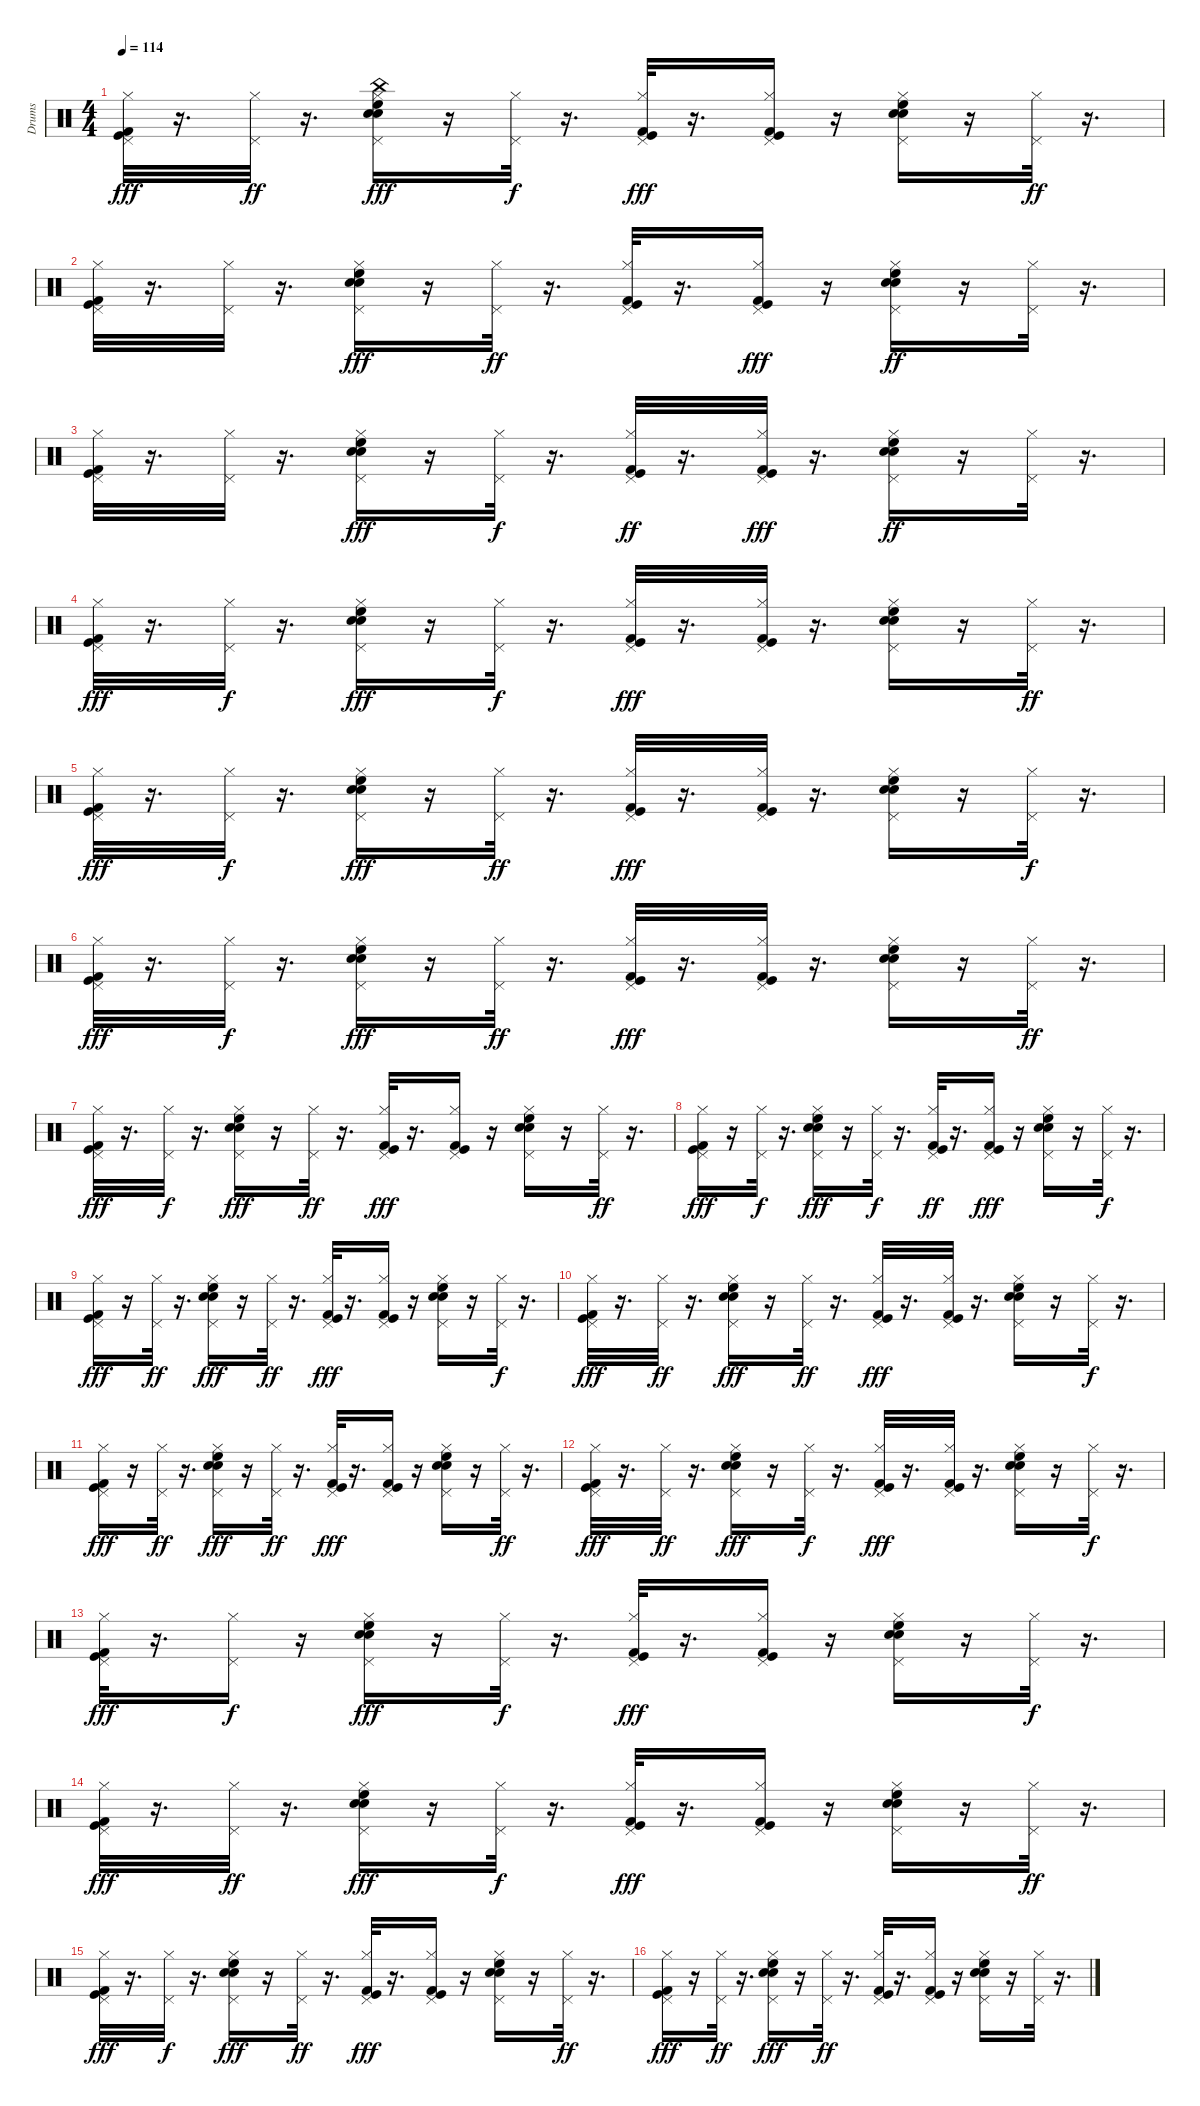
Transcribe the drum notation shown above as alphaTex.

\track ("Drums" "Drums") {instrument percussion}
\staff {score}
\articulation defaults
\ts (4 4)
\tempo 114
\clef neutral
\ks c
("Pedal Hi-Hat (hit)" "Kick (hit)" "Hi-Hat (closed)" "Kick (hit) 2").32{dy fff} r.16{d} ("Pedal Hi-Hat (hit)" "Hi-Hat (closed)").32{dy ff} r.16{d} ("Pedal Hi-Hat (hit)" "Hi-Hat (closed)" "China (hit)" "High Floor Tom (hit)" "Snare (hit) 2" "Electric Snare (hit)").16{dy fff} r.16 ("Pedal Hi-Hat (hit)" "Hi-Hat (closed)").32{dy f} r.16{d} ("Kick (hit) 2" "Pedal Hi-Hat (hit)" "Hi-Hat (closed)" "Kick (hit)").32{dy fff} r.16{d} ("Pedal Hi-Hat (hit)" "Hi-Hat (closed)" "Kick (hit) 2" "Kick (hit)").16 r.16 ("Snare (hit) 2" "High Floor Tom (hit)" "Pedal Hi-Hat (hit)" "Hi-Hat (closed)" "Electric Snare (hit)").16 r.16 ("Pedal Hi-Hat (hit)" "Hi-Hat (closed)").32{dy ff} r.16{d} |
("Kick (hit) 2" "Kick (hit)" "Pedal Hi-Hat (hit)" "Hi-Hat (closed)").32 r.16{d} ("Pedal Hi-Hat (hit)" "Hi-Hat (closed)").32 r.16{d} ("Electric Snare (hit)" "Snare (hit) 2" "Pedal Hi-Hat (hit)" "Hi-Hat (closed)" "High Floor Tom (hit)").16{dy fff} r.16 ("Pedal Hi-Hat (hit)" "Hi-Hat (closed)").32{dy ff} r.16{d} ("Kick (hit) 2" "Kick (hit)" "Pedal Hi-Hat (hit)" "Hi-Hat (closed)").32 r.16{d} ("Pedal Hi-Hat (hit)" "Hi-Hat (closed)" "Kick (hit)" "Kick (hit) 2").16{dy fff} r.16 ("Electric Snare (hit)" "Snare (hit) 2" "High Floor Tom (hit)" "Pedal Hi-Hat (hit)" "Hi-Hat (closed)").16{dy ff} r.16 ("Pedal Hi-Hat (hit)" "Hi-Hat (closed)").32 r.16{d} |
("Kick (hit) 2" "Kick (hit)" "Pedal Hi-Hat (hit)" "Hi-Hat (closed)").32 r.16{d} ("Pedal Hi-Hat (hit)" "Hi-Hat (closed)").32 r.16{d} ("Electric Snare (hit)" "Pedal Hi-Hat (hit)" "Hi-Hat (closed)" "Snare (hit) 2" "High Floor Tom (hit)").16{dy fff} r.16 ("Pedal Hi-Hat (hit)" "Hi-Hat (closed)").32{dy f} r.16{d} ("Kick (hit) 2" "Kick (hit)" "Pedal Hi-Hat (hit)" "Hi-Hat (closed)").32{dy ff} r.16{d} ("Kick (hit)" "Pedal Hi-Hat (hit)" "Hi-Hat (closed)" "Kick (hit) 2").32{dy fff} r.16{d} ("High Floor Tom (hit)" "Electric Snare (hit)" "Pedal Hi-Hat (hit)" "Snare (hit) 2" "Hi-Hat (closed)").16{dy ff} r.16 ("Pedal Hi-Hat (hit)" "Hi-Hat (closed)").32 r.16{d} |
("Kick (hit)" "Pedal Hi-Hat (hit)" "Hi-Hat (closed)" "Kick (hit) 2").32{dy fff} r.16{d} ("Pedal Hi-Hat (hit)" "Hi-Hat (closed)").32{dy f} r.16{d} ("Snare (hit) 2" "Electric Snare (hit)" "Pedal Hi-Hat (hit)" "Hi-Hat (closed)" "High Floor Tom (hit)").16{dy fff} r.16 ("Pedal Hi-Hat (hit)" "Hi-Hat (closed)").32{dy f} r.16{d} ("Pedal Hi-Hat (hit)" "Hi-Hat (closed)" "Kick (hit)" "Kick (hit) 2").32{dy fff} r.16{d} ("Pedal Hi-Hat (hit)" "Hi-Hat (closed)" "Kick (hit)" "Kick (hit) 2").32 r.16{d} ("Pedal Hi-Hat (hit)" "Hi-Hat (closed)" "Snare (hit) 2" "High Floor Tom (hit)" "Electric Snare (hit)").16 r.16 ("Pedal Hi-Hat (hit)" "Hi-Hat (closed)").32{dy ff} r.16{d} |
("Kick (hit)" "Pedal Hi-Hat (hit)" "Hi-Hat (closed)" "Kick (hit) 2").32{dy fff} r.16{d} ("Pedal Hi-Hat (hit)" "Hi-Hat (closed)").32{dy f} r.16{d} ("High Floor Tom (hit)" "Snare (hit) 2" "Pedal Hi-Hat (hit)" "Hi-Hat (closed)" "Electric Snare (hit)").16{dy fff} r.16 ("Pedal Hi-Hat (hit)" "Hi-Hat (closed)").32{dy ff} r.16{d} ("Pedal Hi-Hat (hit)" "Hi-Hat (closed)" "Kick (hit) 2" "Kick (hit)").32{dy fff} r.16{d} ("Pedal Hi-Hat (hit)" "Hi-Hat (closed)" "Kick (hit)" "Kick (hit) 2").32 r.16{d} ("Pedal Hi-Hat (hit)" "Snare (hit) 2" "Hi-Hat (closed)" "High Floor Tom (hit)" "Electric Snare (hit)").16 r.16 ("Pedal Hi-Hat (hit)" "Hi-Hat (closed)").32{dy f} r.16{d} |
("Pedal Hi-Hat (hit)" "Hi-Hat (closed)" "Kick (hit)" "Kick (hit) 2").32{dy fff} r.16{d} ("Pedal Hi-Hat (hit)" "Hi-Hat (closed)").32{dy f} r.16{d} ("Snare (hit) 2" "High Floor Tom (hit)" "Pedal Hi-Hat (hit)" "Hi-Hat (closed)" "Electric Snare (hit)").16{dy fff} r.16 ("Pedal Hi-Hat (hit)" "Hi-Hat (closed)").32{dy ff} r.16{d} ("Kick (hit) 2" "Pedal Hi-Hat (hit)" "Hi-Hat (closed)" "Kick (hit)").32{dy fff} r.16{d} ("Pedal Hi-Hat (hit)" "Kick (hit) 2" "Hi-Hat (closed)" "Kick (hit)").32 r.16{d} ("Electric Snare (hit)" "Pedal Hi-Hat (hit)" "High Floor Tom (hit)" "Hi-Hat (closed)" "Snare (hit) 2").16 r.16 ("Pedal Hi-Hat (hit)" "Hi-Hat (closed)").32{dy ff} r.16{d} |
("Pedal Hi-Hat (hit)" "Hi-Hat (closed)" "Kick (hit) 2" "Kick (hit)").32{dy fff} r.16{d} ("Pedal Hi-Hat (hit)" "Hi-Hat (closed)").32{dy f} r.16{d} ("Electric Snare (hit)" "Pedal Hi-Hat (hit)" "Hi-Hat (closed)" "High Floor Tom (hit)" "Snare (hit) 2").16{dy fff} r.16 ("Pedal Hi-Hat (hit)" "Hi-Hat (closed)").32{dy ff} r.16{d} ("Kick (hit) 2" "Pedal Hi-Hat (hit)" "Hi-Hat (closed)" "Kick (hit)").32{dy fff} r.16{d} ("Pedal Hi-Hat (hit)" "Kick (hit) 2" "Hi-Hat (closed)" "Kick (hit)").16 r.16 ("High Floor Tom (hit)" "Electric Snare (hit)" "Pedal Hi-Hat (hit)" "Hi-Hat (closed)" "Snare (hit) 2").16 r.16 ("Pedal Hi-Hat (hit)" "Hi-Hat (closed)").32{dy ff} r.16{d} |
("Kick (hit) 2" "Pedal Hi-Hat (hit)" "Hi-Hat (closed)" "Kick (hit)").16{dy fff} r.16 ("Pedal Hi-Hat (hit)" "Hi-Hat (closed)").32{dy f} r.16{d} ("Electric Snare (hit)" "Pedal Hi-Hat (hit)" "Hi-Hat (closed)" "High Floor Tom (hit)" "Snare (hit) 2").16{dy fff} r.16 ("Pedal Hi-Hat (hit)" "Hi-Hat (closed)").32{dy f} r.16{d} ("Kick (hit) 2" "Pedal Hi-Hat (hit)" "Kick (hit)" "Hi-Hat (closed)").32{dy ff} r.16{d} ("Pedal Hi-Hat (hit)" "Hi-Hat (closed)" "Kick (hit)" "Kick (hit) 2").16{dy fff} r.16 ("Pedal Hi-Hat (hit)" "Snare (hit) 2" "High Floor Tom (hit)" "Hi-Hat (closed)" "Electric Snare (hit)").16 r.16 ("Pedal Hi-Hat (hit)" "Hi-Hat (closed)").32{dy f} r.16{d} |
("Kick (hit) 2" "Pedal Hi-Hat (hit)" "Hi-Hat (closed)" "Kick (hit)").16{dy fff} r.16 ("Pedal Hi-Hat (hit)" "Hi-Hat (closed)").32{dy ff} r.16{d} ("Electric Snare (hit)" "Snare (hit) 2" "Pedal Hi-Hat (hit)" "Hi-Hat (closed)" "High Floor Tom (hit)").16{dy fff} r.16 ("Pedal Hi-Hat (hit)" "Hi-Hat (closed)").32{dy ff} r.16{d} ("Kick (hit) 2" "Pedal Hi-Hat (hit)" "Hi-Hat (closed)" "Kick (hit)").32{dy fff} r.16{d} ("Pedal Hi-Hat (hit)" "Kick (hit) 2" "Hi-Hat (closed)" "Kick (hit)").16 r.16 ("Snare (hit) 2" "High Floor Tom (hit)" "Pedal Hi-Hat (hit)" "Hi-Hat (closed)" "Electric Snare (hit)").16 r.16 ("Hi-Hat (closed)" "Pedal Hi-Hat (hit)").32{dy f} r.16{d} |
("Kick (hit)" "Pedal Hi-Hat (hit)" "Hi-Hat (closed)" "Kick (hit) 2").32{dy fff} r.16{d} ("Pedal Hi-Hat (hit)" "Hi-Hat (closed)").32{dy ff} r.16{d} ("Pedal Hi-Hat (hit)" "Snare (hit) 2" "Hi-Hat (closed)" "High Floor Tom (hit)" "Electric Snare (hit)").16{dy fff} r.16 ("Pedal Hi-Hat (hit)" "Hi-Hat (closed)").32{dy ff} r.16{d} ("Hi-Hat (closed)" "Pedal Hi-Hat (hit)" "Kick (hit)" "Kick (hit) 2").32{dy fff} r.16{d} ("Pedal Hi-Hat (hit)" "Kick (hit)" "Hi-Hat (closed)" "Kick (hit) 2").32 r.16{d} ("Snare (hit) 2" "High Floor Tom (hit)" "Pedal Hi-Hat (hit)" "Hi-Hat (closed)" "Electric Snare (hit)").16 r.16 ("Pedal Hi-Hat (hit)" "Hi-Hat (closed)").32{dy f} r.16{d} |
("Kick (hit)" "Pedal Hi-Hat (hit)" "Hi-Hat (closed)" "Kick (hit) 2").16{dy fff} r.16 ("Pedal Hi-Hat (hit)" "Hi-Hat (closed)").32{dy ff} r.16{d} ("Pedal Hi-Hat (hit)" "Hi-Hat (closed)" "Electric Snare (hit)" "Snare (hit) 2" "High Floor Tom (hit)").16{dy fff} r.16 ("Pedal Hi-Hat (hit)" "Hi-Hat (closed)").32{dy ff} r.16{d} ("Kick (hit)" "Pedal Hi-Hat (hit)" "Hi-Hat (closed)" "Kick (hit) 2").32{dy fff} r.16{d} ("Hi-Hat (closed)" "Pedal Hi-Hat (hit)" "Kick (hit)" "Kick (hit) 2").16 r.16 ("High Floor Tom (hit)" "Pedal Hi-Hat (hit)" "Hi-Hat (closed)" "Electric Snare (hit)" "Snare (hit) 2").16 r.16 ("Pedal Hi-Hat (hit)" "Hi-Hat (closed)").32{dy ff} r.16{d} |
("Kick (hit)" "Pedal Hi-Hat (hit)" "Hi-Hat (closed)" "Kick (hit) 2").32{dy fff} r.16{d} ("Pedal Hi-Hat (hit)" "Hi-Hat (closed)").32{dy ff} r.16{d} ("Snare (hit) 2" "Pedal Hi-Hat (hit)" "Hi-Hat (closed)" "Electric Snare (hit)" "High Floor Tom (hit)").16{dy fff} r.16 ("Pedal Hi-Hat (hit)" "Hi-Hat (closed)").32{dy f} r.16{d} ("Pedal Hi-Hat (hit)" "Hi-Hat (closed)" "Kick (hit)" "Kick (hit) 2").32{dy fff} r.16{d} ("Hi-Hat (closed)" "Pedal Hi-Hat (hit)" "Kick (hit)" "Kick (hit) 2").32 r.16{d} ("Snare (hit) 2" "Pedal Hi-Hat (hit)" "Electric Snare (hit)" "Hi-Hat (closed)" "High Floor Tom (hit)").16 r.16 ("Hi-Hat (closed)" "Pedal Hi-Hat (hit)").32{dy f} r.16{d} |
("Kick (hit)" "Kick (hit) 2" "Pedal Hi-Hat (hit)" "Hi-Hat (closed)").32{dy fff} r.16{d} ("Pedal Hi-Hat (hit)" "Hi-Hat (closed)").16{dy f} r.16 ("Electric Snare (hit)" "Pedal Hi-Hat (hit)" "Snare (hit) 2" "Hi-Hat (closed)" "High Floor Tom (hit)").16{dy fff} r.16 ("Pedal Hi-Hat (hit)" "Hi-Hat (closed)").32{dy f} r.16{d} ("Kick (hit)" "Hi-Hat (closed)" "Pedal Hi-Hat (hit)" "Kick (hit) 2").32{dy fff} r.16{d} ("Kick (hit) 2" "Kick (hit)" "Hi-Hat (closed)" "Pedal Hi-Hat (hit)").16 r.16 ("Electric Snare (hit)" "Pedal Hi-Hat (hit)" "Hi-Hat (closed)" "High Floor Tom (hit)" "Snare (hit) 2").16 r.16 ("Pedal Hi-Hat (hit)" "Hi-Hat (closed)").32{dy f} r.16{d} |
("Kick (hit)" "Kick (hit) 2" "Pedal Hi-Hat (hit)" "Hi-Hat (closed)").32{dy fff} r.16{d} ("Pedal Hi-Hat (hit)" "Hi-Hat (closed)").32{dy ff} r.16{d} ("Snare (hit) 2" "Electric Snare (hit)" "Pedal Hi-Hat (hit)" "High Floor Tom (hit)" "Hi-Hat (closed)").16{dy fff} r.16 ("Hi-Hat (closed)" "Pedal Hi-Hat (hit)").32{dy f} r.16{d} ("Pedal Hi-Hat (hit)" "Kick (hit) 2" "Hi-Hat (closed)" "Kick (hit)").32{dy fff} r.16{d} ("Pedal Hi-Hat (hit)" "Kick (hit) 2" "Hi-Hat (closed)" "Kick (hit)").16 r.16 ("High Floor Tom (hit)" "Electric Snare (hit)" "Hi-Hat (closed)" "Snare (hit) 2" "Pedal Hi-Hat (hit)").16 r.16 ("Pedal Hi-Hat (hit)" "Hi-Hat (closed)").32{dy ff} r.16{d} |
("Kick (hit)" "Pedal Hi-Hat (hit)" "Kick (hit) 2" "Hi-Hat (closed)").32{dy fff} r.16{d} ("Pedal Hi-Hat (hit)" "Hi-Hat (closed)").32{dy f} r.16{d} ("Pedal Hi-Hat (hit)" "Hi-Hat (closed)" "Electric Snare (hit)" "High Floor Tom (hit)" "Snare (hit) 2").16{dy fff} r.16 ("Pedal Hi-Hat (hit)" "Hi-Hat (closed)").32{dy ff} r.16{d} ("Pedal Hi-Hat (hit)" "Hi-Hat (closed)" "Kick (hit)" "Kick (hit) 2").32{dy fff} r.16{d} ("Pedal Hi-Hat (hit)" "Hi-Hat (closed)" "Kick (hit) 2" "Kick (hit)").16 r.16 ("Snare (hit) 2" "Pedal Hi-Hat (hit)" "Electric Snare (hit)" "Hi-Hat (closed)" "High Floor Tom (hit)").16 r.16 ("Pedal Hi-Hat (hit)" "Hi-Hat (closed)").32{dy ff} r.16{d} |
("Pedal Hi-Hat (hit)" "Hi-Hat (closed)" "Kick (hit) 2" "Kick (hit)").16{dy fff} r.16 ("Pedal Hi-Hat (hit)" "Hi-Hat (closed)").32{dy ff} r.16{d} ("Electric Snare (hit)" "Pedal Hi-Hat (hit)" "Hi-Hat (closed)" "Snare (hit) 2" "High Floor Tom (hit)").16{dy fff} r.16 ("Pedal Hi-Hat (hit)" "Hi-Hat (closed)").32{dy ff} r.16{d} ("Kick (hit) 2" "Pedal Hi-Hat (hit)" "Kick (hit)" "Hi-Hat (closed)").32 r.16{d} ("Kick (hit)" "Kick (hit) 2" "Pedal Hi-Hat (hit)" "Hi-Hat (closed)").16 r.16 ("High Floor Tom (hit)" "Snare (hit) 2" "Electric Snare (hit)" "Pedal Hi-Hat (hit)" "Hi-Hat (closed)").16 r.16 ("Pedal Hi-Hat (hit)" "Hi-Hat (closed)").32 r.16{d}
